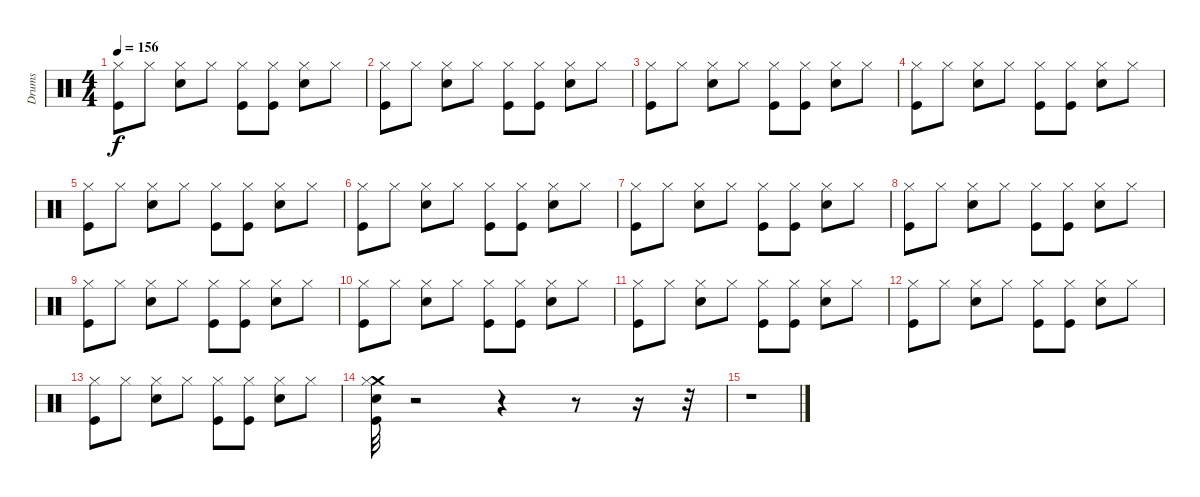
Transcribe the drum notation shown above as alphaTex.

\track ("Drums" "Drums") {instrument percussion}
\staff {score}
\articulation defaults
\ts (4 4)
\tempo 156
\clef neutral
\ks c
("Kick (hit)" "Hi-Hat (closed)").8{dy f} "Hi-Hat (closed)".8 ("Snare (hit) 2" "Hi-Hat (closed)").8 "Hi-Hat (closed)".8 ("Kick (hit)" "Hi-Hat (closed)").8 ("Kick (hit)" "Hi-Hat (closed)").8 ("Snare (hit) 2" "Hi-Hat (closed)").8 "Hi-Hat (closed)".8 |
("Kick (hit)" "Hi-Hat (closed)").8 "Hi-Hat (closed)".8 ("Snare (hit) 2" "Hi-Hat (closed)").8 "Hi-Hat (closed)".8 ("Kick (hit)" "Hi-Hat (closed)").8 ("Kick (hit)" "Hi-Hat (closed)").8 ("Snare (hit) 2" "Hi-Hat (closed)").8 "Hi-Hat (closed)".8 |
("Kick (hit)" "Hi-Hat (closed)").8 "Hi-Hat (closed)".8 ("Snare (hit) 2" "Hi-Hat (closed)").8 "Hi-Hat (closed)".8 ("Kick (hit)" "Hi-Hat (closed)").8 ("Kick (hit)" "Hi-Hat (closed)").8 ("Snare (hit) 2" "Hi-Hat (closed)").8 "Hi-Hat (closed)".8 |
("Kick (hit)" "Hi-Hat (closed)").8 "Hi-Hat (closed)".8 ("Snare (hit) 2" "Hi-Hat (closed)").8 "Hi-Hat (closed)".8 ("Kick (hit)" "Hi-Hat (closed)").8 ("Kick (hit)" "Hi-Hat (closed)").8 ("Snare (hit) 2" "Hi-Hat (closed)").8 "Hi-Hat (closed)".8 |
("Kick (hit)" "Hi-Hat (closed)").8 "Hi-Hat (closed)".8 ("Snare (hit) 2" "Hi-Hat (closed)").8 "Hi-Hat (closed)".8 ("Kick (hit)" "Hi-Hat (closed)").8 ("Kick (hit)" "Hi-Hat (closed)").8 ("Snare (hit) 2" "Hi-Hat (closed)").8 "Hi-Hat (closed)".8 |
("Kick (hit)" "Hi-Hat (closed)").8 "Hi-Hat (closed)".8 ("Snare (hit) 2" "Hi-Hat (closed)").8 "Hi-Hat (closed)".8 ("Kick (hit)" "Hi-Hat (closed)").8 ("Kick (hit)" "Hi-Hat (closed)").8 ("Snare (hit) 2" "Hi-Hat (closed)").8 "Hi-Hat (closed)".8 |
("Kick (hit)" "Hi-Hat (closed)").8 "Hi-Hat (closed)".8 ("Snare (hit) 2" "Hi-Hat (closed)").8 "Hi-Hat (closed)".8 ("Kick (hit)" "Hi-Hat (closed)").8 ("Kick (hit)" "Hi-Hat (closed)").8 ("Snare (hit) 2" "Hi-Hat (closed)").8 "Hi-Hat (closed)".8 |
("Kick (hit)" "Hi-Hat (closed)").8 "Hi-Hat (closed)".8 ("Snare (hit) 2" "Hi-Hat (closed)").8 "Hi-Hat (closed)".8 ("Kick (hit)" "Hi-Hat (closed)").8 ("Kick (hit)" "Hi-Hat (closed)").8 ("Snare (hit) 2" "Hi-Hat (closed)").8 "Hi-Hat (closed)".8 |
("Kick (hit)" "Hi-Hat (closed)").8 "Hi-Hat (closed)".8 ("Snare (hit) 2" "Hi-Hat (closed)").8 "Hi-Hat (closed)".8 ("Kick (hit)" "Hi-Hat (closed)").8 ("Kick (hit)" "Hi-Hat (closed)").8 ("Snare (hit) 2" "Hi-Hat (closed)").8 "Hi-Hat (closed)".8 |
("Kick (hit)" "Hi-Hat (closed)").8 "Hi-Hat (closed)".8 ("Snare (hit) 2" "Hi-Hat (closed)").8 "Hi-Hat (closed)".8 ("Kick (hit)" "Hi-Hat (closed)").8 ("Kick (hit)" "Hi-Hat (closed)").8 ("Snare (hit) 2" "Hi-Hat (closed)").8 "Hi-Hat (closed)".8 |
("Kick (hit)" "Hi-Hat (closed)").8 "Hi-Hat (closed)".8 ("Snare (hit) 2" "Hi-Hat (closed)").8 "Hi-Hat (closed)".8 ("Kick (hit)" "Hi-Hat (closed)").8 ("Kick (hit)" "Hi-Hat (closed)").8 ("Snare (hit) 2" "Hi-Hat (closed)").8 "Hi-Hat (closed)".8 |
("Kick (hit)" "Hi-Hat (closed)").8 "Hi-Hat (closed)".8 ("Snare (hit) 2" "Hi-Hat (closed)").8 "Hi-Hat (closed)".8 ("Kick (hit)" "Hi-Hat (closed)").8 ("Kick (hit)" "Hi-Hat (closed)").8 ("Snare (hit) 2" "Hi-Hat (closed)").8 "Hi-Hat (closed)".8 |
("Kick (hit)" "Hi-Hat (closed)").8 "Hi-Hat (closed)".8 ("Snare (hit) 2" "Hi-Hat (closed)").8 "Hi-Hat (closed)".8 ("Kick (hit)" "Hi-Hat (closed)").8 ("Kick (hit)" "Hi-Hat (closed)").8 ("Snare (hit) 2" "Hi-Hat (closed)").8 "Hi-Hat (closed)".8 |
("Crash medium (hit)" "Snare (hit) 2" "Kick (hit)" "Hi-Hat (closed)").32 r.2 r.4 r.8 r.16 r.32 |
r.1
